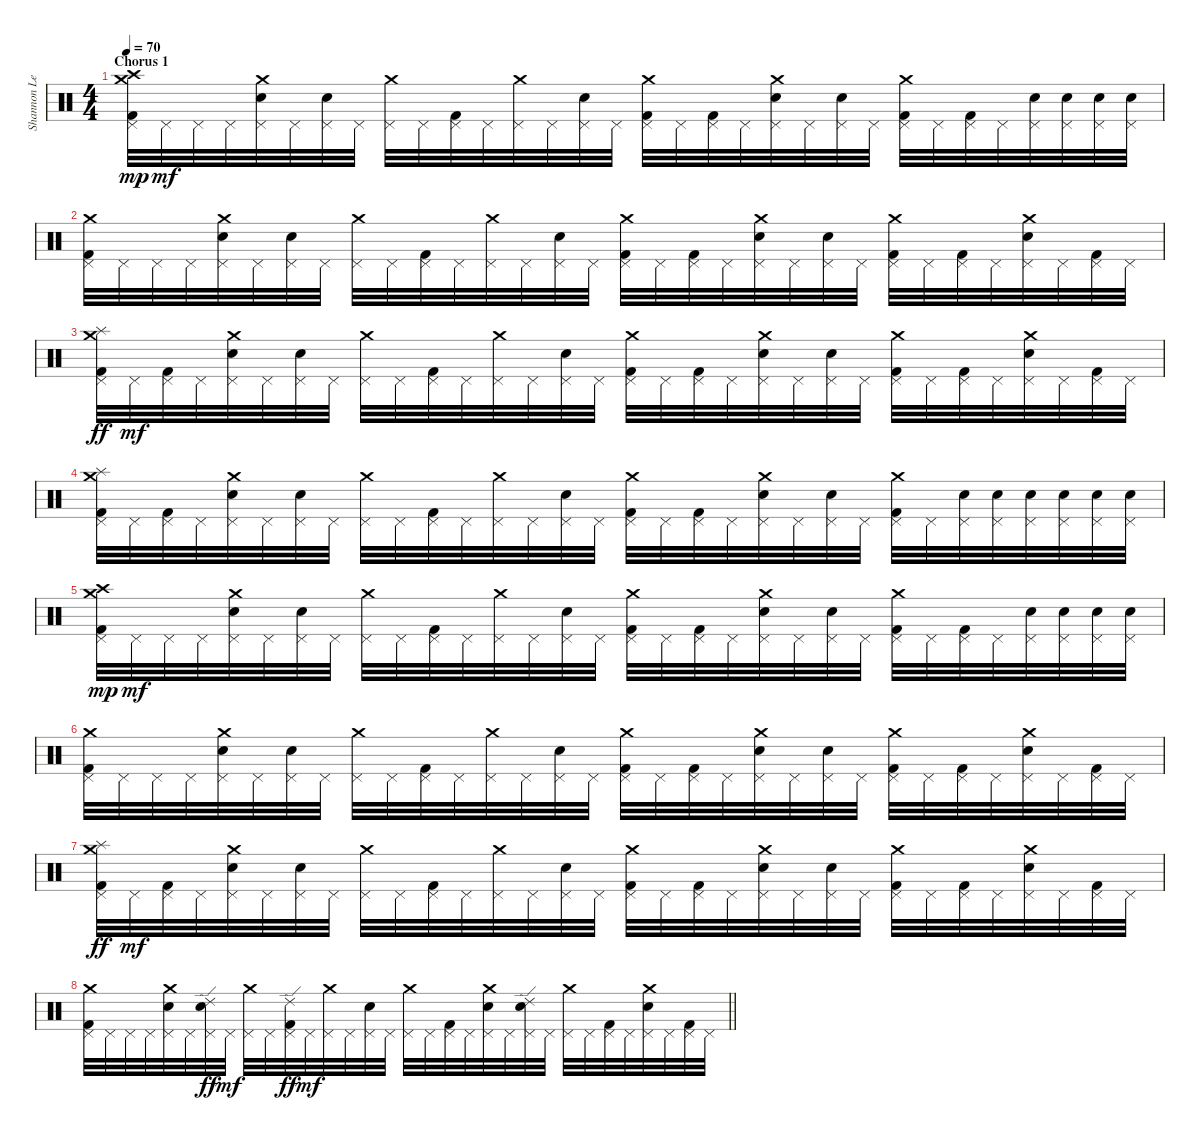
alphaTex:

\track ("Shannon Leto - Drums" "Shannon Le") {instrument percussion}
\staff {score}
\articulation defaults
\ts (4 4)
\section ("" "Chorus 1")
\tempo 70
\clef neutral
\ks c
("Crash medium (hit)" "Pedal Hi-Hat (hit)" "Crash high (hit)" "Kick (hit) 2").32{dy mp} "Pedal Hi-Hat (hit)".32{dy mf} "Pedal Hi-Hat (hit)".32 "Pedal Hi-Hat (hit)".32 ("Crash medium (hit)" "Pedal Hi-Hat (hit)" "Electric Snare (hit)").32 "Pedal Hi-Hat (hit)".32 ("Pedal Hi-Hat (hit)" "Electric Snare (hit)").32 "Pedal Hi-Hat (hit)".32 ("Crash medium (hit)" "Pedal Hi-Hat (hit)").32 "Pedal Hi-Hat (hit)".32 ("Pedal Hi-Hat (hit)" "Kick (hit) 2").32 "Pedal Hi-Hat (hit)".32 ("Crash medium (hit)" "Pedal Hi-Hat (hit)").32 "Pedal Hi-Hat (hit)".32 ("Pedal Hi-Hat (hit)" "Electric Snare (hit)").32 "Pedal Hi-Hat (hit)".32 ("Crash medium (hit)" "Pedal Hi-Hat (hit)" "Kick (hit) 2").32 "Pedal Hi-Hat (hit)".32 ("Pedal Hi-Hat (hit)" "Kick (hit) 2").32 "Pedal Hi-Hat (hit)".32 ("Crash medium (hit)" "Pedal Hi-Hat (hit)" "Electric Snare (hit)").32 "Pedal Hi-Hat (hit)".32 ("Pedal Hi-Hat (hit)" "Electric Snare (hit)").32 "Pedal Hi-Hat (hit)".32 ("Crash medium (hit)" "Pedal Hi-Hat (hit)" "Kick (hit) 2").32 "Pedal Hi-Hat (hit)".32 ("Pedal Hi-Hat (hit)" "Kick (hit) 2").32 "Pedal Hi-Hat (hit)".32 ("Pedal Hi-Hat (hit)" "Electric Snare (hit)").32 ("Pedal Hi-Hat (hit)" "Electric Snare (hit)").32 ("Pedal Hi-Hat (hit)" "Electric Snare (hit)").32 ("Pedal Hi-Hat (hit)" "Electric Snare (hit)").32 |
("Crash medium (hit)" "Pedal Hi-Hat (hit)" "Kick (hit) 2").32 "Pedal Hi-Hat (hit)".32 "Pedal Hi-Hat (hit)".32 "Pedal Hi-Hat (hit)".32 ("Crash medium (hit)" "Pedal Hi-Hat (hit)" "Electric Snare (hit)").32 "Pedal Hi-Hat (hit)".32 ("Pedal Hi-Hat (hit)" "Electric Snare (hit)").32 "Pedal Hi-Hat (hit)".32 ("Crash medium (hit)" "Pedal Hi-Hat (hit)").32 "Pedal Hi-Hat (hit)".32 ("Pedal Hi-Hat (hit)" "Kick (hit) 2").32 "Pedal Hi-Hat (hit)".32 ("Crash medium (hit)" "Pedal Hi-Hat (hit)").32 "Pedal Hi-Hat (hit)".32 ("Pedal Hi-Hat (hit)" "Electric Snare (hit)").32 "Pedal Hi-Hat (hit)".32 ("Crash medium (hit)" "Pedal Hi-Hat (hit)" "Kick (hit) 2").32 "Pedal Hi-Hat (hit)".32 ("Pedal Hi-Hat (hit)" "Kick (hit) 2").32 "Pedal Hi-Hat (hit)".32 ("Crash medium (hit)" "Pedal Hi-Hat (hit)" "Electric Snare (hit)").32 "Pedal Hi-Hat (hit)".32 ("Pedal Hi-Hat (hit)" "Electric Snare (hit)").32 "Pedal Hi-Hat (hit)".32 ("Crash medium (hit)" "Pedal Hi-Hat (hit)" "Kick (hit) 2").32 "Pedal Hi-Hat (hit)".32 ("Pedal Hi-Hat (hit)" "Kick (hit) 2").32 "Pedal Hi-Hat (hit)".32 ("Crash medium (hit)" "Pedal Hi-Hat (hit)" "Electric Snare (hit)").32 "Pedal Hi-Hat (hit)".32 ("Pedal Hi-Hat (hit)" "Kick (hit) 2").32 "Pedal Hi-Hat (hit)".32 |
("Crash medium (hit)" "Pedal Hi-Hat (hit)" "Splash (hit)" "Kick (hit) 2").32{dy ff} "Pedal Hi-Hat (hit)".32{dy mf} ("Pedal Hi-Hat (hit)" "Kick (hit) 2").32 "Pedal Hi-Hat (hit)".32 ("Crash medium (hit)" "Pedal Hi-Hat (hit)" "Electric Snare (hit)").32 "Pedal Hi-Hat (hit)".32 ("Pedal Hi-Hat (hit)" "Electric Snare (hit)").32 "Pedal Hi-Hat (hit)".32 ("Crash medium (hit)" "Pedal Hi-Hat (hit)").32 "Pedal Hi-Hat (hit)".32 ("Pedal Hi-Hat (hit)" "Kick (hit) 2").32 "Pedal Hi-Hat (hit)".32 ("Crash medium (hit)" "Pedal Hi-Hat (hit)").32 "Pedal Hi-Hat (hit)".32 ("Pedal Hi-Hat (hit)" "Electric Snare (hit)").32 "Pedal Hi-Hat (hit)".32 ("Crash medium (hit)" "Pedal Hi-Hat (hit)" "Kick (hit) 2").32 "Pedal Hi-Hat (hit)".32 ("Pedal Hi-Hat (hit)" "Kick (hit) 2").32 "Pedal Hi-Hat (hit)".32 ("Crash medium (hit)" "Pedal Hi-Hat (hit)" "Electric Snare (hit)").32 "Pedal Hi-Hat (hit)".32 ("Pedal Hi-Hat (hit)" "Electric Snare (hit)").32 "Pedal Hi-Hat (hit)".32 ("Crash medium (hit)" "Pedal Hi-Hat (hit)" "Kick (hit) 2").32 "Pedal Hi-Hat (hit)".32 ("Pedal Hi-Hat (hit)" "Kick (hit) 2").32 "Pedal Hi-Hat (hit)".32 ("Crash medium (hit)" "Pedal Hi-Hat (hit)" "Electric Snare (hit)").32 "Pedal Hi-Hat (hit)".32 ("Pedal Hi-Hat (hit)" "Kick (hit) 2").32 "Pedal Hi-Hat (hit)".32 |
("Crash medium (hit)" "Pedal Hi-Hat (hit)" "Splash (hit)" "Kick (hit) 2").32 "Pedal Hi-Hat (hit)".32 ("Pedal Hi-Hat (hit)" "Kick (hit) 2").32 "Pedal Hi-Hat (hit)".32 ("Crash medium (hit)" "Pedal Hi-Hat (hit)" "Electric Snare (hit)").32 "Pedal Hi-Hat (hit)".32 ("Pedal Hi-Hat (hit)" "Electric Snare (hit)").32 "Pedal Hi-Hat (hit)".32 ("Crash medium (hit)" "Pedal Hi-Hat (hit)").32 "Pedal Hi-Hat (hit)".32 ("Pedal Hi-Hat (hit)" "Kick (hit) 2").32 "Pedal Hi-Hat (hit)".32 ("Crash medium (hit)" "Pedal Hi-Hat (hit)").32 "Pedal Hi-Hat (hit)".32 ("Pedal Hi-Hat (hit)" "Electric Snare (hit)").32 "Pedal Hi-Hat (hit)".32 ("Crash medium (hit)" "Pedal Hi-Hat (hit)" "Kick (hit) 2").32 "Pedal Hi-Hat (hit)".32 ("Pedal Hi-Hat (hit)" "Kick (hit) 2").32 "Pedal Hi-Hat (hit)".32 ("Crash medium (hit)" "Pedal Hi-Hat (hit)" "Electric Snare (hit)").32 "Pedal Hi-Hat (hit)".32 ("Pedal Hi-Hat (hit)" "Electric Snare (hit)").32 "Pedal Hi-Hat (hit)".32 ("Crash medium (hit)" "Pedal Hi-Hat (hit)" "Kick (hit) 2").32 "Pedal Hi-Hat (hit)".32 ("Pedal Hi-Hat (hit)" "Electric Snare (hit)").32 ("Pedal Hi-Hat (hit)" "Electric Snare (hit)").32 ("Pedal Hi-Hat (hit)" "Electric Snare (hit)").32 ("Pedal Hi-Hat (hit)" "Electric Snare (hit)").32 ("Pedal Hi-Hat (hit)" "Electric Snare (hit)").32 ("Pedal Hi-Hat (hit)" "Electric Snare (hit)").32 |
("Crash medium (hit)" "Pedal Hi-Hat (hit)" "Crash high (hit)" "Kick (hit) 2").32{dy mp} "Pedal Hi-Hat (hit)".32{dy mf} "Pedal Hi-Hat (hit)".32 "Pedal Hi-Hat (hit)".32 ("Crash medium (hit)" "Pedal Hi-Hat (hit)" "Electric Snare (hit)").32 "Pedal Hi-Hat (hit)".32 ("Pedal Hi-Hat (hit)" "Electric Snare (hit)").32 "Pedal Hi-Hat (hit)".32 ("Crash medium (hit)" "Pedal Hi-Hat (hit)").32 "Pedal Hi-Hat (hit)".32 ("Pedal Hi-Hat (hit)" "Kick (hit) 2").32 "Pedal Hi-Hat (hit)".32 ("Crash medium (hit)" "Pedal Hi-Hat (hit)").32 "Pedal Hi-Hat (hit)".32 ("Pedal Hi-Hat (hit)" "Electric Snare (hit)").32 "Pedal Hi-Hat (hit)".32 ("Crash medium (hit)" "Pedal Hi-Hat (hit)" "Kick (hit) 2").32 "Pedal Hi-Hat (hit)".32 ("Pedal Hi-Hat (hit)" "Kick (hit) 2").32 "Pedal Hi-Hat (hit)".32 ("Crash medium (hit)" "Pedal Hi-Hat (hit)" "Electric Snare (hit)").32 "Pedal Hi-Hat (hit)".32 ("Pedal Hi-Hat (hit)" "Electric Snare (hit)").32 "Pedal Hi-Hat (hit)".32 ("Crash medium (hit)" "Pedal Hi-Hat (hit)" "Kick (hit) 2").32 "Pedal Hi-Hat (hit)".32 ("Pedal Hi-Hat (hit)" "Kick (hit) 2").32 "Pedal Hi-Hat (hit)".32 ("Pedal Hi-Hat (hit)" "Electric Snare (hit)").32 ("Pedal Hi-Hat (hit)" "Electric Snare (hit)").32 ("Pedal Hi-Hat (hit)" "Electric Snare (hit)").32 ("Pedal Hi-Hat (hit)" "Electric Snare (hit)").32 |
("Crash medium (hit)" "Pedal Hi-Hat (hit)" "Kick (hit) 2").32 "Pedal Hi-Hat (hit)".32 "Pedal Hi-Hat (hit)".32 "Pedal Hi-Hat (hit)".32 ("Crash medium (hit)" "Pedal Hi-Hat (hit)" "Electric Snare (hit)").32 "Pedal Hi-Hat (hit)".32 ("Pedal Hi-Hat (hit)" "Electric Snare (hit)").32 "Pedal Hi-Hat (hit)".32 ("Crash medium (hit)" "Pedal Hi-Hat (hit)").32 "Pedal Hi-Hat (hit)".32 ("Pedal Hi-Hat (hit)" "Kick (hit) 2").32 "Pedal Hi-Hat (hit)".32 ("Crash medium (hit)" "Pedal Hi-Hat (hit)").32 "Pedal Hi-Hat (hit)".32 ("Pedal Hi-Hat (hit)" "Electric Snare (hit)").32 "Pedal Hi-Hat (hit)".32 ("Crash medium (hit)" "Pedal Hi-Hat (hit)" "Kick (hit) 2").32 "Pedal Hi-Hat (hit)".32 ("Pedal Hi-Hat (hit)" "Kick (hit) 2").32 "Pedal Hi-Hat (hit)".32 ("Crash medium (hit)" "Pedal Hi-Hat (hit)" "Electric Snare (hit)").32 "Pedal Hi-Hat (hit)".32 ("Pedal Hi-Hat (hit)" "Electric Snare (hit)").32 "Pedal Hi-Hat (hit)".32 ("Crash medium (hit)" "Pedal Hi-Hat (hit)" "Kick (hit) 2").32 "Pedal Hi-Hat (hit)".32 ("Pedal Hi-Hat (hit)" "Kick (hit) 2").32 "Pedal Hi-Hat (hit)".32 ("Crash medium (hit)" "Pedal Hi-Hat (hit)" "Electric Snare (hit)").32 "Pedal Hi-Hat (hit)".32 ("Pedal Hi-Hat (hit)" "Kick (hit) 2").32 "Pedal Hi-Hat (hit)".32 |
("Crash medium (hit)" "Pedal Hi-Hat (hit)" "Splash (hit)" "Kick (hit) 2").32{dy ff} "Pedal Hi-Hat (hit)".32{dy mf} ("Pedal Hi-Hat (hit)" "Kick (hit) 2").32 "Pedal Hi-Hat (hit)".32 ("Crash medium (hit)" "Pedal Hi-Hat (hit)" "Electric Snare (hit)").32 "Pedal Hi-Hat (hit)".32 ("Pedal Hi-Hat (hit)" "Electric Snare (hit)").32 "Pedal Hi-Hat (hit)".32 ("Crash medium (hit)" "Pedal Hi-Hat (hit)").32 "Pedal Hi-Hat (hit)".32 ("Pedal Hi-Hat (hit)" "Kick (hit) 2").32 "Pedal Hi-Hat (hit)".32 ("Crash medium (hit)" "Pedal Hi-Hat (hit)").32 "Pedal Hi-Hat (hit)".32 ("Pedal Hi-Hat (hit)" "Electric Snare (hit)").32 "Pedal Hi-Hat (hit)".32 ("Crash medium (hit)" "Pedal Hi-Hat (hit)" "Kick (hit) 2").32 "Pedal Hi-Hat (hit)".32 ("Pedal Hi-Hat (hit)" "Kick (hit) 2").32 "Pedal Hi-Hat (hit)".32 ("Crash medium (hit)" "Pedal Hi-Hat (hit)" "Electric Snare (hit)").32 "Pedal Hi-Hat (hit)".32 ("Pedal Hi-Hat (hit)" "Electric Snare (hit)").32 "Pedal Hi-Hat (hit)".32 ("Crash medium (hit)" "Pedal Hi-Hat (hit)" "Kick (hit) 2").32 "Pedal Hi-Hat (hit)".32 ("Pedal Hi-Hat (hit)" "Kick (hit) 2").32 "Pedal Hi-Hat (hit)".32 ("Crash medium (hit)" "Pedal Hi-Hat (hit)" "Electric Snare (hit)").32 "Pedal Hi-Hat (hit)".32 ("Pedal Hi-Hat (hit)" "Kick (hit) 2").32 "Pedal Hi-Hat (hit)".32 |
\barLineRight lightlight
("Crash medium (hit)" "Pedal Hi-Hat (hit)" "Kick (hit) 2").32 "Pedal Hi-Hat (hit)".32 "Pedal Hi-Hat (hit)".32 "Pedal Hi-Hat (hit)".32 ("Crash medium (hit)" "Pedal Hi-Hat (hit)" "Electric Snare (hit)").32 "Pedal Hi-Hat (hit)".32 ("Pedal Hi-Hat (hit)" "Electric Snare (hit)" "Ride (edge) 2").32{dy ff} "Pedal Hi-Hat (hit)".32{dy mf} ("Crash medium (hit)" "Pedal Hi-Hat (hit)").32 "Pedal Hi-Hat (hit)".32 ("Pedal Hi-Hat (hit)" "Ride (edge) 2" "Kick (hit) 2").32{dy ff} "Pedal Hi-Hat (hit)".32{dy mf} ("Crash medium (hit)" "Pedal Hi-Hat (hit)").32 "Pedal Hi-Hat (hit)".32 ("Pedal Hi-Hat (hit)" "Electric Snare (hit)").32 "Pedal Hi-Hat (hit)".32 ("Crash medium (hit)" "Pedal Hi-Hat (hit)").32 "Pedal Hi-Hat (hit)".32 ("Pedal Hi-Hat (hit)" "Kick (hit) 2").32 "Pedal Hi-Hat (hit)".32 ("Crash medium (hit)" "Pedal Hi-Hat (hit)" "Electric Snare (hit)").32 "Pedal Hi-Hat (hit)".32 ("Pedal Hi-Hat (hit)" "Electric Snare (hit)" "Ride (edge) 2").32 "Pedal Hi-Hat (hit)".32 ("Crash medium (hit)" "Pedal Hi-Hat (hit)").32 "Pedal Hi-Hat (hit)".32 ("Pedal Hi-Hat (hit)" "Kick (hit) 2").32 "Pedal Hi-Hat (hit)".32 ("Crash medium (hit)" "Pedal Hi-Hat (hit)" "Electric Snare (hit)").32 "Pedal Hi-Hat (hit)".32 ("Pedal Hi-Hat (hit)" "Kick (hit) 2").32 "Pedal Hi-Hat (hit)".32
